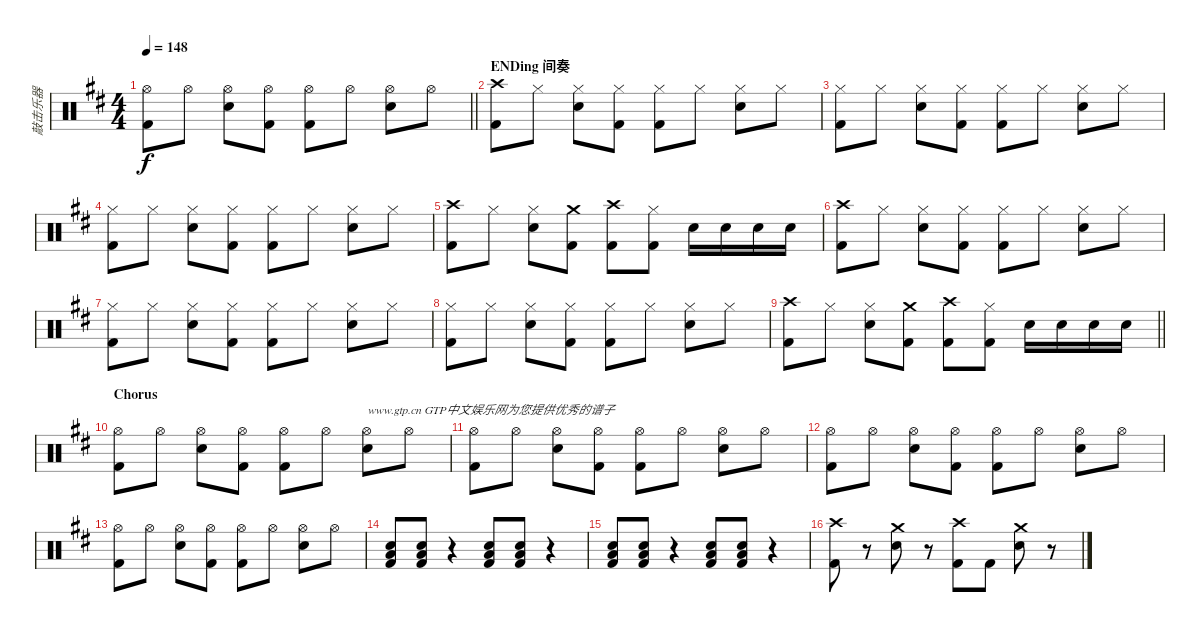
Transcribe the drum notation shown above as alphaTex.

\track ("敲击乐器" "敲击乐器") {instrument percussion}
\staff {score}
\articulation defaults
\ts (4 4)
\tempo 148
\clef neutral
\barLineRight lightlight
\ks d
("Hi-Hat (open)" "Kick (hit) 2").8{dy f} "Hi-Hat (open)".8 ("Hi-Hat (open)" "Electric Snare (hit)").8 ("Hi-Hat (open)" "Kick (hit) 2").8 ("Hi-Hat (open)" "Kick (hit) 2").8 "Hi-Hat (open)".8 ("Hi-Hat (open)" "Electric Snare (hit)").8 "Hi-Hat (open)".8 |
\section ("" "ENDing 间奏")
("Crash high (hit)" "Kick (hit) 2").8 "Hi-Hat (closed)".8 ("Hi-Hat (closed)" "Electric Snare (hit)").8 ("Hi-Hat (closed)" "Kick (hit) 2").8 ("Hi-Hat (closed)" "Kick (hit) 2").8 "Hi-Hat (closed)".8 ("Hi-Hat (closed)" "Electric Snare (hit)").8 "Hi-Hat (closed)".8 |
("Hi-Hat (closed)" "Kick (hit) 2").8 "Hi-Hat (closed)".8 ("Hi-Hat (closed)" "Electric Snare (hit)").8 ("Hi-Hat (closed)" "Kick (hit) 2").8 ("Hi-Hat (closed)" "Kick (hit) 2").8 "Hi-Hat (closed)".8 ("Hi-Hat (closed)" "Electric Snare (hit)").8 "Hi-Hat (closed)".8 |
("Hi-Hat (closed)" "Kick (hit) 2").8 "Hi-Hat (closed)".8 ("Hi-Hat (closed)" "Electric Snare (hit)").8 ("Hi-Hat (closed)" "Kick (hit) 2").8 ("Hi-Hat (closed)" "Kick (hit) 2").8 "Hi-Hat (closed)".8 ("Hi-Hat (closed)" "Electric Snare (hit)").8 "Hi-Hat (closed)".8 |
("Crash high (hit)" "Kick (hit) 2").8 "Hi-Hat (closed)".8 ("Hi-Hat (closed)" "Electric Snare (hit)").8 ("Crash medium (hit)" "Kick (hit) 2").8 ("Crash high (hit)" "Kick (hit) 2").8 ("Hi-Hat (closed)" "Kick (hit) 2").8 "Electric Snare (hit)".16 "Electric Snare (hit)".16 "Electric Snare (hit)".16 "Electric Snare (hit)".16 |
("Crash high (hit)" "Kick (hit) 2").8 "Hi-Hat (closed)".8 ("Hi-Hat (closed)" "Electric Snare (hit)").8 ("Hi-Hat (closed)" "Kick (hit) 2").8 ("Hi-Hat (closed)" "Kick (hit) 2").8 "Hi-Hat (closed)".8 ("Hi-Hat (closed)" "Electric Snare (hit)").8 "Hi-Hat (closed)".8 |
("Hi-Hat (closed)" "Kick (hit) 2").8 "Hi-Hat (closed)".8 ("Hi-Hat (closed)" "Electric Snare (hit)").8 ("Hi-Hat (closed)" "Kick (hit) 2").8 ("Hi-Hat (closed)" "Kick (hit) 2").8 "Hi-Hat (closed)".8 ("Hi-Hat (closed)" "Electric Snare (hit)").8 "Hi-Hat (closed)".8 |
("Hi-Hat (closed)" "Kick (hit) 2").8 "Hi-Hat (closed)".8 ("Hi-Hat (closed)" "Electric Snare (hit)").8 ("Hi-Hat (closed)" "Kick (hit) 2").8 ("Hi-Hat (closed)" "Kick (hit) 2").8 "Hi-Hat (closed)".8 ("Hi-Hat (closed)" "Electric Snare (hit)").8 "Hi-Hat (closed)".8 |
\barLineRight lightlight
("Crash high (hit)" "Kick (hit) 2").8 "Hi-Hat (closed)".8 ("Hi-Hat (closed)" "Electric Snare (hit)").8 ("Crash medium (hit)" "Kick (hit) 2").8 ("Crash high (hit)" "Kick (hit) 2").8 ("Hi-Hat (closed)" "Kick (hit) 2").8 "Electric Snare (hit)".16 "Electric Snare (hit)".16 "Electric Snare (hit)".16 "Electric Snare (hit)".16 |
\section ("" "Chorus")
("Hi-Hat (open)" "Kick (hit) 2").8 "Hi-Hat (open)".8 ("Hi-Hat (open)" "Electric Snare (hit)").8 ("Hi-Hat (open)" "Kick (hit) 2").8 ("Hi-Hat (open)" "Kick (hit) 2").8 "Hi-Hat (open)".8 ("Hi-Hat (open)" "Electric Snare (hit)").8{txt "www.gtp.cn GTP中文娱乐网为您提供优秀的谱子"} "Hi-Hat (open)".8 |
("Hi-Hat (open)" "Kick (hit) 2").8 "Hi-Hat (open)".8 ("Hi-Hat (open)" "Electric Snare (hit)").8 ("Hi-Hat (open)" "Kick (hit) 2").8 ("Hi-Hat (open)" "Kick (hit) 2").8 "Hi-Hat (open)".8 ("Hi-Hat (open)" "Electric Snare (hit)").8 "Hi-Hat (open)".8 |
("Hi-Hat (open)" "Kick (hit) 2").8 "Hi-Hat (open)".8 ("Hi-Hat (open)" "Electric Snare (hit)").8 ("Hi-Hat (open)" "Kick (hit) 2").8 ("Hi-Hat (open)" "Kick (hit) 2").8 "Hi-Hat (open)".8 ("Hi-Hat (open)" "Electric Snare (hit)").8 "Hi-Hat (open)".8 |
("Hi-Hat (open)" "Kick (hit) 2").8 "Hi-Hat (open)".8 ("Hi-Hat (open)" "Electric Snare (hit)").8 ("Hi-Hat (open)" "Kick (hit) 2").8 ("Hi-Hat (open)" "Kick (hit) 2").8 "Hi-Hat (open)".8 ("Hi-Hat (open)" "Electric Snare (hit)").8 "Hi-Hat (open)".8 |
("Low Floor Tom (hit)" "Electric Snare (hit)" "Kick (hit) 2").8 ("Low Floor Tom (hit)" "Electric Snare (hit)" "Kick (hit) 2").8 r.4 ("Low Floor Tom (hit)" "Electric Snare (hit)" "Kick (hit) 2").8 ("Low Floor Tom (hit)" "Electric Snare (hit)" "Kick (hit) 2").8 r.4 |
("Low Floor Tom (hit)" "Electric Snare (hit)" "Kick (hit) 2").8 ("Low Floor Tom (hit)" "Electric Snare (hit)" "Kick (hit) 2").8 r.4 ("Low Floor Tom (hit)" "Electric Snare (hit)" "Kick (hit) 2").8 ("Low Floor Tom (hit)" "Electric Snare (hit)" "Kick (hit) 2").8 r.4 |
("Crash high (hit)" "Kick (hit) 2").8 r.8 ("Crash medium (hit)" "Electric Snare (hit)").8 r.8 ("Crash high (hit)" "Kick (hit) 2").8 "Kick (hit) 2".8 ("Crash medium (hit)" "Electric Snare (hit)").8 r.8
